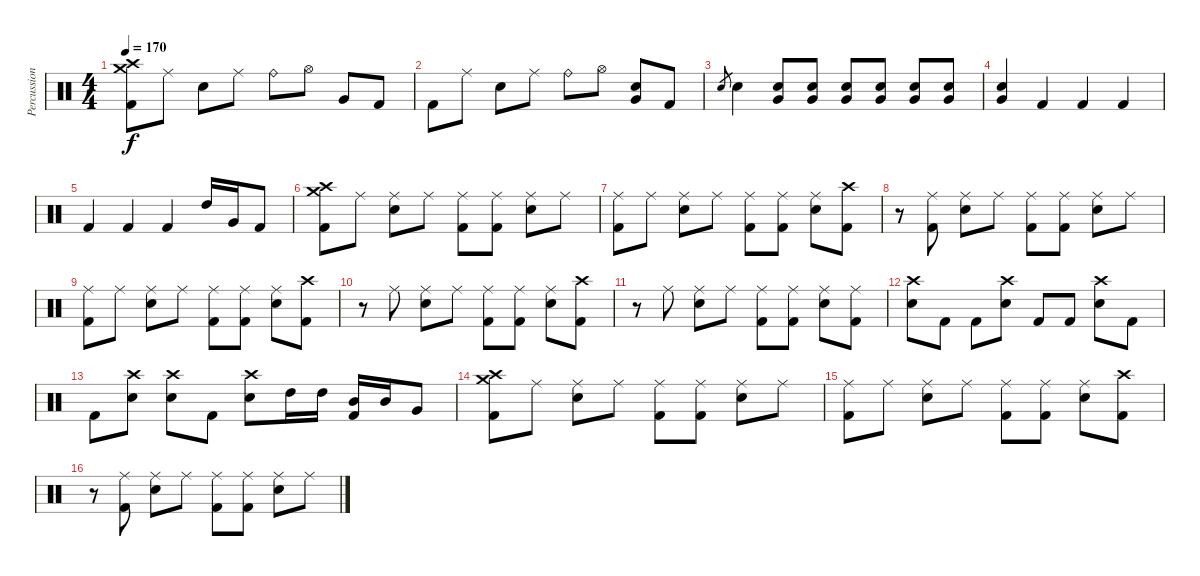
\track ("Percussion" "Percussion") {instrument percussion}
\staff {score}
\articulation defaults
\ts (4 4)
\tempo 170
\clef neutral
\ks c
("Crash medium (hit)" "Crash high (hit)" "Kick (hit) 2").8{dy f} "Ride (middle)".8 "Snare (hit) 2".8 "Ride (middle)".8 "Ride (bell)".8 "Hi-Hat (open)".8 "Very Low Tom (hit)".8 "Kick (hit) 2".8 |
"Kick (hit) 2".8 "Ride (middle)".8 "Snare (hit) 2".8 "Ride (middle)".8 "Ride (bell)".8 "Hi-Hat (open)".8 ("Very Low Tom (hit)" "Snare (hit) 2").8 "Kick (hit) 2".8 |
"Snare (hit) 2".8{gr} "Snare (hit) 2".4 ("Very Low Tom (hit)" "Snare (hit) 2").8 ("Very Low Tom (hit)" "Snare (hit) 2").8 ("Very Low Tom (hit)" "Snare (hit) 2").8 ("Very Low Tom (hit)" "Snare (hit) 2").8 ("Very Low Tom (hit)" "Snare (hit) 2").8 ("Very Low Tom (hit)" "Snare (hit) 2").8 |
("Very Low Tom (hit)" "Snare (hit) 2").4 "Kick (hit) 2".4 "Kick (hit) 2".4 "Kick (hit) 2".4 |
"Kick (hit) 2".4 "Kick (hit) 2".4 "Kick (hit) 2".4 "High Tom (hit)".16 "Very Low Tom (hit)".16 "Kick (hit) 2".8 |
("Crash medium (hit)" "Crash high (hit)" "Kick (hit) 2").8 "Ride (middle)".8 ("Ride (middle)" "Snare (hit) 2").8 "Ride (middle)".8 ("Ride (middle)" "Kick (hit) 2").8 ("Ride (middle)" "Kick (hit) 2").8 ("Ride (middle)" "Snare (hit) 2").8 "Ride (middle)".8 |
("Ride (middle)" "Kick (hit) 2").8 "Ride (middle)".8 ("Ride (middle)" "Snare (hit) 2").8 "Ride (middle)".8 ("Ride (middle)" "Kick (hit) 2").8 ("Ride (middle)" "Kick (hit) 2").8 ("Ride (middle)" "Snare (hit) 2").8 ("Crash high (hit)" "Kick (hit) 2").8 |
r.8 ("Ride (middle)" "Kick (hit) 2").8 ("Ride (middle)" "Snare (hit) 2").8 "Ride (middle)".8 ("Ride (middle)" "Kick (hit) 2").8 ("Ride (middle)" "Kick (hit) 2").8 ("Ride (middle)" "Snare (hit) 2").8 "Ride (middle)".8 |
("Ride (middle)" "Kick (hit) 2").8 "Ride (middle)".8 ("Ride (middle)" "Snare (hit) 2").8 "Ride (middle)".8 ("Ride (middle)" "Kick (hit) 2").8 ("Ride (middle)" "Kick (hit) 2").8 ("Ride (middle)" "Snare (hit) 2").8 ("Crash high (hit)" "Kick (hit) 2").8 |
r.8 "Ride (middle)".8 ("Ride (middle)" "Snare (hit) 2").8 "Ride (middle)".8 ("Ride (middle)" "Kick (hit) 2").8 ("Ride (middle)" "Kick (hit) 2").8 ("Ride (middle)" "Snare (hit) 2").8 ("Crash high (hit)" "Kick (hit) 2").8 |
r.8 "Ride (middle)".8 ("Ride (middle)" "Snare (hit) 2").8 "Ride (middle)".8 ("Ride (middle)" "Kick (hit) 2").8 ("Ride (middle)" "Kick (hit) 2").8 ("Ride (middle)" "Snare (hit) 2").8 ("Ride (middle)" "Kick (hit) 2").8 |
("Crash high (hit)" "Snare (hit) 2").8 "Kick (hit) 2".8 "Kick (hit) 2".8 ("Crash high (hit)" "Snare (hit) 2").8 "Kick (hit) 2".8 "Kick (hit) 2".8 ("Crash high (hit)" "Snare (hit) 2").8 "Kick (hit) 2".8 |
"Kick (hit) 2".8 ("Crash high (hit)" "Snare (hit) 2").8 ("Crash high (hit)" "Snare (hit) 2").8 "Kick (hit) 2".8 ("Crash high (hit)" "Snare (hit) 2").8 "High Tom (hit)".16 "High Tom (hit)".16 ("Mid Tom (hit)" "Kick (hit) 2").16 "Mid Tom (hit)".16 "Very Low Tom (hit)".8 |
("Crash medium (hit)" "Crash high (hit)" "Kick (hit) 2").8 "Ride (middle)".8 ("Ride (middle)" "Snare (hit) 2").8 "Ride (middle)".8 ("Ride (middle)" "Kick (hit) 2").8 ("Ride (middle)" "Kick (hit) 2").8 ("Ride (middle)" "Snare (hit) 2").8 "Ride (middle)".8 |
("Ride (middle)" "Kick (hit) 2").8 "Ride (middle)".8 ("Ride (middle)" "Snare (hit) 2").8 "Ride (middle)".8 ("Ride (middle)" "Kick (hit) 2").8 ("Ride (middle)" "Kick (hit) 2").8 ("Ride (middle)" "Snare (hit) 2").8 ("Crash high (hit)" "Kick (hit) 2").8 |
r.8 ("Ride (middle)" "Kick (hit) 2").8 ("Ride (middle)" "Snare (hit) 2").8 "Ride (middle)".8 ("Ride (middle)" "Kick (hit) 2").8 ("Ride (middle)" "Kick (hit) 2").8 ("Ride (middle)" "Snare (hit) 2").8 "Ride (middle)".8
